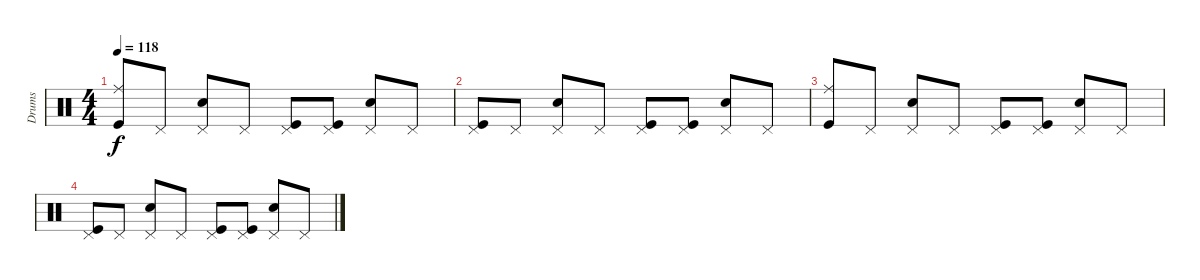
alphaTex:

\track ("Drums" "Drums") {instrument percussion}
\staff {score}
\articulation defaults
\ts (4 4)
\tempo 118
\clef neutral
\ks c
("Kick (hit)" "Ride (middle)").8{dy f} "Pedal Hi-Hat (hit)".8 ("Snare (hit) 2" "Pedal Hi-Hat (hit)").8 "Pedal Hi-Hat (hit)".8 ("Kick (hit)" "Pedal Hi-Hat (hit)").8 ("Kick (hit)" "Pedal Hi-Hat (hit)").8 ("Snare (hit) 2" "Pedal Hi-Hat (hit)").8 "Pedal Hi-Hat (hit)".8 |
("Kick (hit)" "Pedal Hi-Hat (hit)").8 "Pedal Hi-Hat (hit)".8 ("Snare (hit) 2" "Pedal Hi-Hat (hit)").8 "Pedal Hi-Hat (hit)".8 ("Kick (hit)" "Pedal Hi-Hat (hit)").8 ("Kick (hit)" "Pedal Hi-Hat (hit)").8 ("Snare (hit) 2" "Pedal Hi-Hat (hit)").8 "Pedal Hi-Hat (hit)".8 |
("Kick (hit)" "Ride (middle)").8 "Pedal Hi-Hat (hit)".8 ("Snare (hit) 2" "Pedal Hi-Hat (hit)").8 "Pedal Hi-Hat (hit)".8 ("Kick (hit)" "Pedal Hi-Hat (hit)").8 ("Kick (hit)" "Pedal Hi-Hat (hit)").8 ("Snare (hit) 2" "Pedal Hi-Hat (hit)").8 "Pedal Hi-Hat (hit)".8 |
("Kick (hit)" "Pedal Hi-Hat (hit)").8 "Pedal Hi-Hat (hit)".8 ("Snare (hit) 2" "Pedal Hi-Hat (hit)").8 "Pedal Hi-Hat (hit)".8 ("Kick (hit)" "Pedal Hi-Hat (hit)").8 ("Kick (hit)" "Pedal Hi-Hat (hit)").8 ("Snare (hit) 2" "Pedal Hi-Hat (hit)").8 "Pedal Hi-Hat (hit)".8
